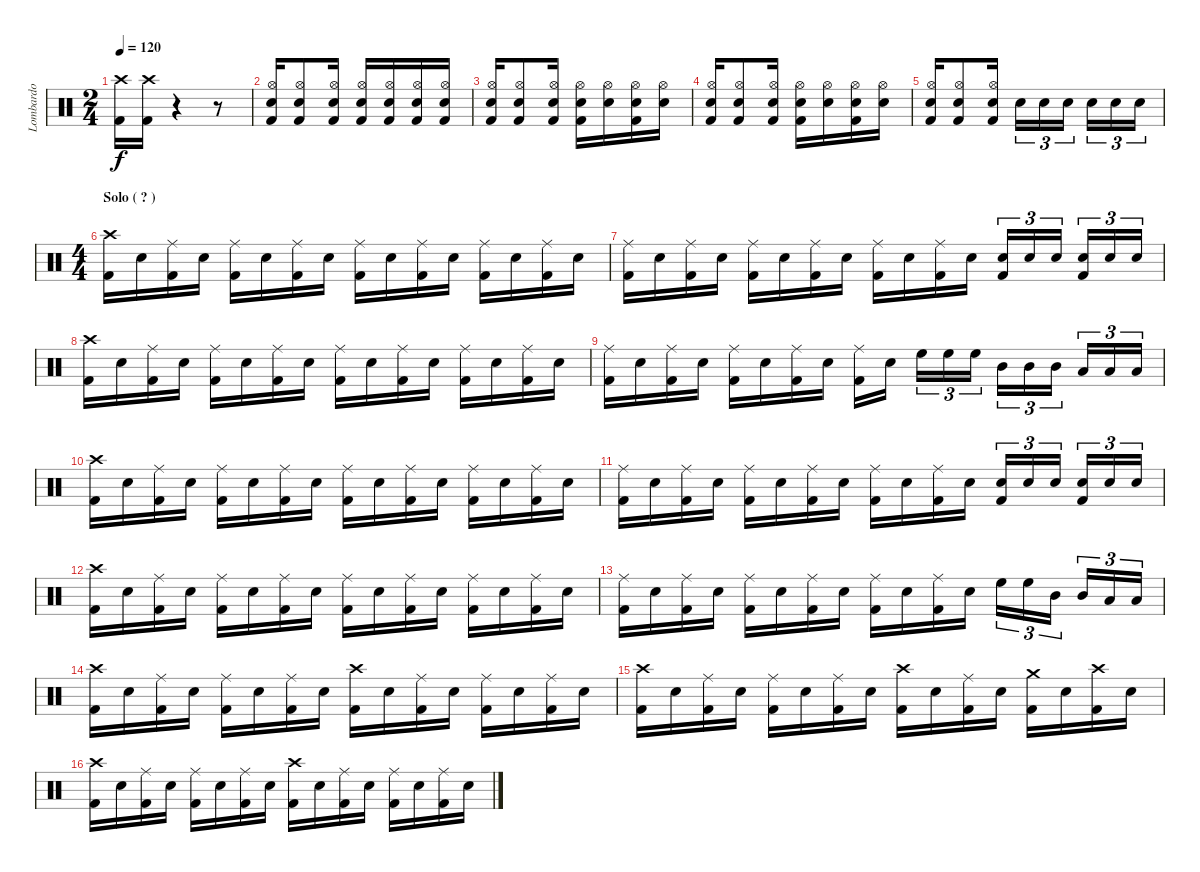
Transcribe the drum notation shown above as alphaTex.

\track ("Lombardo" "Lombardo") {instrument percussion}
\staff {score}
\articulation defaults
\ts (2 4)
\tempo 120
\clef neutral
\ks c
("Crash high (hit)" "Kick (hit) 2").16{dy f volume 16} ("Crash high (hit)" "Kick (hit) 2").16 r.4 r.8 |
("Hi-Hat (open)" "Electric Snare (hit)" "Kick (hit) 2").16 ("Hi-Hat (open)" "Electric Snare (hit)" "Kick (hit) 2").8 ("Hi-Hat (open)" "Electric Snare (hit)" "Kick (hit) 2").16 ("Hi-Hat (open)" "Electric Snare (hit)" "Kick (hit) 2").16 ("Hi-Hat (open)" "Electric Snare (hit)" "Kick (hit) 2").16 ("Hi-Hat (open)" "Electric Snare (hit)" "Kick (hit) 2").16 ("Hi-Hat (open)" "Electric Snare (hit)" "Kick (hit) 2").16 |
("Hi-Hat (open)" "Electric Snare (hit)" "Kick (hit) 2").16 ("Hi-Hat (open)" "Electric Snare (hit)" "Kick (hit) 2").8 ("Hi-Hat (open)" "Electric Snare (hit)" "Kick (hit) 2").16 ("Hi-Hat (open)" "Electric Snare (hit)" "Kick (hit) 2").16 ("Hi-Hat (open)" "Electric Snare (hit)").16 ("Hi-Hat (open)" "Electric Snare (hit)" "Kick (hit) 2").16 ("Hi-Hat (open)" "Electric Snare (hit)").16 |
("Hi-Hat (open)" "Electric Snare (hit)" "Kick (hit) 2").16 ("Hi-Hat (open)" "Electric Snare (hit)" "Kick (hit) 2").8 ("Hi-Hat (open)" "Electric Snare (hit)" "Kick (hit) 2").16 ("Hi-Hat (open)" "Electric Snare (hit)" "Kick (hit) 2").16 ("Hi-Hat (open)" "Electric Snare (hit)").16 ("Hi-Hat (open)" "Electric Snare (hit)" "Kick (hit) 2").16 ("Hi-Hat (open)" "Electric Snare (hit)").16 |
("Hi-Hat (open)" "Electric Snare (hit)" "Kick (hit) 2").16 ("Hi-Hat (open)" "Electric Snare (hit)" "Kick (hit) 2").8 ("Hi-Hat (open)" "Electric Snare (hit)" "Kick (hit) 2").16 "Electric Snare (hit)".16{tu (3 2)} "Electric Snare (hit)".16{tu (3 2)} "Electric Snare (hit)".16{tu (3 2)} "Electric Snare (hit)".16{tu (3 2)} "Electric Snare (hit)".16{tu (3 2)} "Electric Snare (hit)".16{tu (3 2)} |
\ts (4 4)
\section ("" "Solo ( ? )")
("Crash high (hit)" "Kick (hit) 2").16 "Electric Snare (hit)".16 ("Ride (middle)" "Kick (hit) 2").16 "Electric Snare (hit)".16 ("Ride (middle)" "Kick (hit) 2").16 "Electric Snare (hit)".16 ("Ride (middle)" "Kick (hit) 2").16 "Electric Snare (hit)".16 ("Ride (middle)" "Kick (hit) 2").16 "Electric Snare (hit)".16 ("Ride (middle)" "Kick (hit) 2").16 "Electric Snare (hit)".16 ("Ride (middle)" "Kick (hit) 2").16 "Electric Snare (hit)".16 ("Ride (middle)" "Kick (hit) 2").16 "Electric Snare (hit)".16 |
("Ride (middle)" "Kick (hit) 2").16 "Electric Snare (hit)".16 ("Ride (middle)" "Kick (hit) 2").16 "Electric Snare (hit)".16 ("Ride (middle)" "Kick (hit) 2").16 "Electric Snare (hit)".16 ("Ride (middle)" "Kick (hit) 2").16 "Electric Snare (hit)".16 ("Ride (middle)" "Kick (hit) 2").16 "Electric Snare (hit)".16 ("Ride (middle)" "Kick (hit) 2").16 "Electric Snare (hit)".16 ("Electric Snare (hit)" "Kick (hit) 2").16{tu (3 2)} "Electric Snare (hit)".16{tu (3 2)} "Electric Snare (hit)".16{tu (3 2)} ("Electric Snare (hit)" "Kick (hit) 2").16{tu (3 2)} "Electric Snare (hit)".16{tu (3 2)} "Electric Snare (hit)".16{tu (3 2)} |
("Crash high (hit)" "Kick (hit) 2").16 "Electric Snare (hit)".16 ("Ride (middle)" "Kick (hit) 2").16 "Electric Snare (hit)".16 ("Ride (middle)" "Kick (hit) 2").16 "Electric Snare (hit)".16 ("Ride (middle)" "Kick (hit) 2").16 "Electric Snare (hit)".16 ("Ride (middle)" "Kick (hit) 2").16 "Electric Snare (hit)".16 ("Ride (middle)" "Kick (hit) 2").16 "Electric Snare (hit)".16 ("Ride (middle)" "Kick (hit) 2").16 "Electric Snare (hit)".16 ("Ride (middle)" "Kick (hit) 2").16 "Electric Snare (hit)".16 |
("Ride (middle)" "Kick (hit) 2").16 "Electric Snare (hit)".16 ("Ride (middle)" "Kick (hit) 2").16 "Electric Snare (hit)".16 ("Ride (middle)" "Kick (hit) 2").16 "Electric Snare (hit)".16 ("Ride (middle)" "Kick (hit) 2").16 "Electric Snare (hit)".16 ("Ride (middle)" "Kick (hit) 2").16 "Electric Snare (hit)".16 "High Floor Tom (hit)".16{tu (3 2)} "High Floor Tom (hit)".16{tu (3 2)} "High Floor Tom (hit)".16{tu (3 2)} "Mid Tom (hit)".16{tu (3 2)} "Mid Tom (hit)".16{tu (3 2)} "Mid Tom (hit)".16{tu (3 2)} "Low Tom (hit)".16{tu (3 2)} "Low Tom (hit)".16{tu (3 2)} "Low Tom (hit)".16{tu (3 2)} |
("Crash high (hit)" "Kick (hit) 2").16 "Electric Snare (hit)".16 ("Ride (middle)" "Kick (hit) 2").16 "Electric Snare (hit)".16 ("Ride (middle)" "Kick (hit) 2").16 "Electric Snare (hit)".16 ("Ride (middle)" "Kick (hit) 2").16 "Electric Snare (hit)".16 ("Ride (middle)" "Kick (hit) 2").16 "Electric Snare (hit)".16 ("Ride (middle)" "Kick (hit) 2").16 "Electric Snare (hit)".16 ("Ride (middle)" "Kick (hit) 2").16 "Electric Snare (hit)".16 ("Ride (middle)" "Kick (hit) 2").16 "Electric Snare (hit)".16 |
("Ride (middle)" "Kick (hit) 2").16 "Electric Snare (hit)".16 ("Ride (middle)" "Kick (hit) 2").16 "Electric Snare (hit)".16 ("Ride (middle)" "Kick (hit) 2").16 "Electric Snare (hit)".16 ("Ride (middle)" "Kick (hit) 2").16 "Electric Snare (hit)".16 ("Ride (middle)" "Kick (hit) 2").16 "Electric Snare (hit)".16 ("Ride (middle)" "Kick (hit) 2").16 "Electric Snare (hit)".16 ("Electric Snare (hit)" "Kick (hit) 2").16{tu (3 2)} "Electric Snare (hit)".16{tu (3 2)} "Electric Snare (hit)".16{tu (3 2)} ("Electric Snare (hit)" "Kick (hit) 2").16{tu (3 2)} "Electric Snare (hit)".16{tu (3 2)} "Electric Snare (hit)".16{tu (3 2)} |
("Crash high (hit)" "Kick (hit) 2").16 "Electric Snare (hit)".16 ("Ride (middle)" "Kick (hit) 2").16 "Electric Snare (hit)".16 ("Ride (middle)" "Kick (hit) 2").16 "Electric Snare (hit)".16 ("Ride (middle)" "Kick (hit) 2").16 "Electric Snare (hit)".16 ("Ride (middle)" "Kick (hit) 2").16 "Electric Snare (hit)".16 ("Ride (middle)" "Kick (hit) 2").16 "Electric Snare (hit)".16 ("Ride (middle)" "Kick (hit) 2").16 "Electric Snare (hit)".16 ("Ride (middle)" "Kick (hit) 2").16 "Electric Snare (hit)".16 |
("Ride (middle)" "Kick (hit) 2").16 "Electric Snare (hit)".16 ("Ride (middle)" "Kick (hit) 2").16 "Electric Snare (hit)".16 ("Ride (middle)" "Kick (hit) 2").16 "Electric Snare (hit)".16 ("Ride (middle)" "Kick (hit) 2").16 "Electric Snare (hit)".16 ("Ride (middle)" "Kick (hit) 2").16 "Electric Snare (hit)".16 ("Ride (middle)" "Kick (hit) 2").16 "Electric Snare (hit)".16 "High Floor Tom (hit)".16{tu (3 2)} "High Floor Tom (hit)".16{tu (3 2)} "Mid Tom (hit)".16{tu (3 2)} "Mid Tom (hit)".16{tu (3 2)} "Low Tom (hit)".16{tu (3 2)} "Low Tom (hit)".16{tu (3 2)} |
("Crash high (hit)" "Kick (hit) 2").16 "Electric Snare (hit)".16 ("Ride (middle)" "Kick (hit) 2").16 "Electric Snare (hit)".16 ("Ride (middle)" "Kick (hit) 2").16 "Electric Snare (hit)".16 ("Ride (middle)" "Kick (hit) 2").16 "Electric Snare (hit)".16 ("Crash high (hit)" "Kick (hit) 2").16 "Electric Snare (hit)".16 ("Ride (middle)" "Kick (hit) 2").16 "Electric Snare (hit)".16 ("Ride (middle)" "Kick (hit) 2").16 "Electric Snare (hit)".16 ("Ride (middle)" "Kick (hit) 2").16 "Electric Snare (hit)".16 |
("Crash high (hit)" "Kick (hit) 2").16 "Electric Snare (hit)".16 ("Ride (middle)" "Kick (hit) 2").16 "Electric Snare (hit)".16 ("Ride (middle)" "Kick (hit) 2").16 "Electric Snare (hit)".16 ("Ride (middle)" "Kick (hit) 2").16 "Electric Snare (hit)".16 ("Crash high (hit)" "Kick (hit) 2").16 "Electric Snare (hit)".16 ("Ride (middle)" "Kick (hit) 2").16 "Electric Snare (hit)".16 ("Crash medium (hit)" "Kick (hit) 2").16 "Electric Snare (hit)".16 ("Crash high (hit)" "Kick (hit) 2").16 "Electric Snare (hit)".16 |
("Crash high (hit)" "Kick (hit) 2").16 "Electric Snare (hit)".16 ("Ride (middle)" "Kick (hit) 2").16 "Electric Snare (hit)".16 ("Ride (middle)" "Kick (hit) 2").16 "Electric Snare (hit)".16 ("Ride (middle)" "Kick (hit) 2").16 "Electric Snare (hit)".16 ("Crash high (hit)" "Kick (hit) 2").16 "Electric Snare (hit)".16 ("Ride (middle)" "Kick (hit) 2").16 "Electric Snare (hit)".16 ("Ride (middle)" "Kick (hit) 2").16 "Electric Snare (hit)".16 ("Ride (middle)" "Kick (hit) 2").16 "Electric Snare (hit)".16
